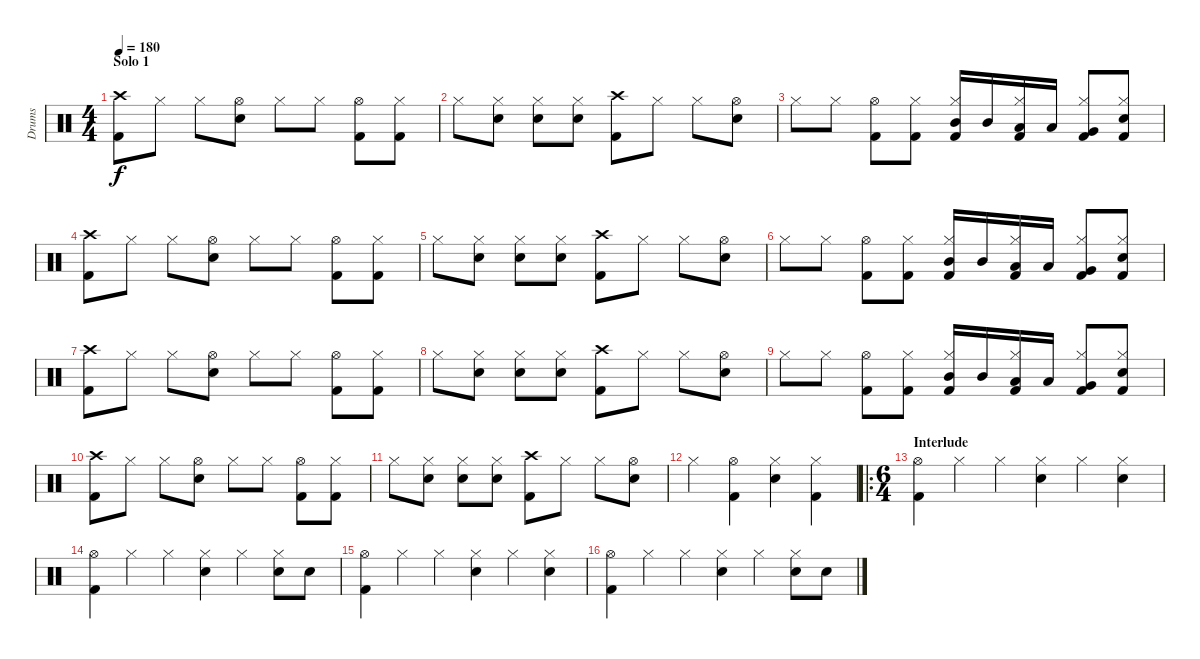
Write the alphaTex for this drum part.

\track ("Drums" "Drums") {instrument percussion}
\staff {score}
\articulation defaults
\ts (4 4)
\section ("" "Solo 1")
\tempo 180
\clef neutral
\ks c
("Crash high (hit)" "Kick (hit) 2").8{dy f} "Hi-Hat (closed)".8 "Hi-Hat (closed)".8 ("Hi-Hat (open)" "Snare (hit) 2").8 "Hi-Hat (closed)".8 "Hi-Hat (closed)".8 ("Hi-Hat (open)" "Kick (hit) 2").8 ("Hi-Hat (closed)" "Kick (hit) 2").8 |
"Hi-Hat (closed)".8 ("Hi-Hat (closed)" "Snare (hit) 2").8 ("Hi-Hat (closed)" "Snare (hit) 2").8 ("Hi-Hat (closed)" "Snare (hit) 2").8 ("Crash high (hit)" "Kick (hit) 2").8 "Hi-Hat (closed)".8 "Hi-Hat (closed)".8 ("Hi-Hat (open)" "Snare (hit) 2").8 |
"Hi-Hat (closed)".8 "Hi-Hat (closed)".8 ("Hi-Hat (open)" "Kick (hit) 2").8 ("Hi-Hat (closed)" "Kick (hit) 2").8 ("Hi-Hat (closed)" "Mid Tom (hit)" "Kick (hit) 2").16 "Mid Tom (hit)".16 ("Hi-Hat (closed)" "Low Tom (hit)" "Kick (hit) 2").16 "Low Tom (hit)".16 ("Hi-Hat (closed)" "Very Low Tom (hit)" "Kick (hit) 2").8 ("Hi-Hat (closed)" "Snare (hit) 2" "Kick (hit) 2").8 |
("Crash high (hit)" "Kick (hit) 2").8 "Hi-Hat (closed)".8 "Hi-Hat (closed)".8 ("Hi-Hat (open)" "Snare (hit) 2").8 "Hi-Hat (closed)".8 "Hi-Hat (closed)".8 ("Hi-Hat (open)" "Kick (hit) 2").8 ("Hi-Hat (closed)" "Kick (hit) 2").8 |
"Hi-Hat (closed)".8 ("Hi-Hat (closed)" "Snare (hit) 2").8 ("Hi-Hat (closed)" "Snare (hit) 2").8 ("Hi-Hat (closed)" "Snare (hit) 2").8 ("Crash high (hit)" "Kick (hit) 2").8 "Hi-Hat (closed)".8 "Hi-Hat (closed)".8 ("Hi-Hat (open)" "Snare (hit) 2").8 |
"Hi-Hat (closed)".8 "Hi-Hat (closed)".8 ("Hi-Hat (open)" "Kick (hit) 2").8 ("Hi-Hat (closed)" "Kick (hit) 2").8 ("Hi-Hat (closed)" "Mid Tom (hit)" "Kick (hit) 2").16 "Mid Tom (hit)".16 ("Hi-Hat (closed)" "Low Tom (hit)" "Kick (hit) 2").16 "Low Tom (hit)".16 ("Hi-Hat (closed)" "Very Low Tom (hit)" "Kick (hit) 2").8 ("Hi-Hat (closed)" "Snare (hit) 2" "Kick (hit) 2").8 |
("Crash high (hit)" "Kick (hit) 2").8 "Hi-Hat (closed)".8 "Hi-Hat (closed)".8 ("Hi-Hat (open)" "Snare (hit) 2").8 "Hi-Hat (closed)".8 "Hi-Hat (closed)".8 ("Hi-Hat (open)" "Kick (hit) 2").8 ("Hi-Hat (closed)" "Kick (hit) 2").8 |
"Hi-Hat (closed)".8 ("Hi-Hat (closed)" "Snare (hit) 2").8 ("Hi-Hat (closed)" "Snare (hit) 2").8 ("Hi-Hat (closed)" "Snare (hit) 2").8 ("Crash high (hit)" "Kick (hit) 2").8 "Hi-Hat (closed)".8 "Hi-Hat (closed)".8 ("Hi-Hat (open)" "Snare (hit) 2").8 |
"Hi-Hat (closed)".8 "Hi-Hat (closed)".8 ("Hi-Hat (open)" "Kick (hit) 2").8 ("Hi-Hat (closed)" "Kick (hit) 2").8 ("Hi-Hat (closed)" "Mid Tom (hit)" "Kick (hit) 2").16 "Mid Tom (hit)".16 ("Hi-Hat (closed)" "Low Tom (hit)" "Kick (hit) 2").16 "Low Tom (hit)".16 ("Hi-Hat (closed)" "Very Low Tom (hit)" "Kick (hit) 2").8 ("Hi-Hat (closed)" "Snare (hit) 2" "Kick (hit) 2").8 |
("Crash high (hit)" "Kick (hit) 2").8 "Hi-Hat (closed)".8 "Hi-Hat (closed)".8 ("Hi-Hat (open)" "Snare (hit) 2").8 "Hi-Hat (closed)".8 "Hi-Hat (closed)".8 ("Hi-Hat (open)" "Kick (hit) 2").8 ("Hi-Hat (closed)" "Kick (hit) 2").8 |
"Hi-Hat (closed)".8 ("Hi-Hat (closed)" "Snare (hit) 2").8 ("Hi-Hat (closed)" "Snare (hit) 2").8 ("Hi-Hat (closed)" "Snare (hit) 2").8 ("Crash high (hit)" "Kick (hit) 2").8 "Hi-Hat (closed)".8 "Hi-Hat (closed)".8 ("Hi-Hat (open)" "Snare (hit) 2").8 |
"Hi-Hat (closed)".4 ("Hi-Hat (open)" "Kick (hit) 2").4 ("Hi-Hat (closed)" "Snare (hit) 2").4 ("Hi-Hat (closed)" "Kick (hit) 2").4 |
\ro
\ts (6 4)
\section ("" "Interlude")
("Hi-Hat (open)" "Kick (hit) 2").4 "Hi-Hat (closed)".4 "Hi-Hat (closed)".4 ("Hi-Hat (closed)" "Snare (hit) 2").4 "Hi-Hat (closed)".4 ("Hi-Hat (closed)" "Snare (hit) 2").4 |
("Hi-Hat (open)" "Kick (hit) 2").4 "Hi-Hat (closed)".4 "Hi-Hat (closed)".4 ("Hi-Hat (closed)" "Snare (hit) 2").4 "Hi-Hat (closed)".4 ("Hi-Hat (closed)" "Snare (hit) 2").8 "Snare (hit) 2".8 |
("Hi-Hat (open)" "Kick (hit) 2").4 "Hi-Hat (closed)".4 "Hi-Hat (closed)".4 ("Hi-Hat (closed)" "Snare (hit) 2").4 "Hi-Hat (closed)".4 ("Hi-Hat (closed)" "Snare (hit) 2").4 |
("Hi-Hat (open)" "Kick (hit) 2").4 "Hi-Hat (closed)".4 "Hi-Hat (closed)".4 ("Hi-Hat (closed)" "Snare (hit) 2").4 "Hi-Hat (closed)".4 ("Hi-Hat (closed)" "Snare (hit) 2").8 "Snare (hit) 2".8
